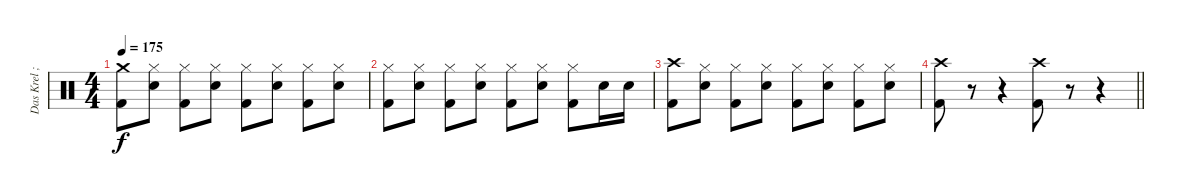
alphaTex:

\track ("Das Krel ;-)" "Das Krel ;") {instrument percussion}
\staff {score}
\articulation defaults
\ts (4 4)
\tempo 175
\clef neutral
\ks c
("Crash medium (hit)" "Kick (hit) 2").8{dy f} ("Hi-Hat (closed)" "Snare (hit) 2").8 ("Hi-Hat (closed)" "Kick (hit) 2").8 ("Hi-Hat (closed)" "Snare (hit) 2").8 ("Hi-Hat (closed)" "Kick (hit) 2").8 ("Hi-Hat (closed)" "Snare (hit) 2").8 ("Hi-Hat (closed)" "Kick (hit) 2").8 ("Hi-Hat (closed)" "Snare (hit) 2").8 |
("Hi-Hat (closed)" "Kick (hit) 2").8 ("Hi-Hat (closed)" "Snare (hit) 2").8 ("Hi-Hat (closed)" "Kick (hit) 2").8 ("Hi-Hat (closed)" "Snare (hit) 2").8 ("Hi-Hat (closed)" "Kick (hit) 2").8 ("Hi-Hat (closed)" "Snare (hit) 2").8 ("Hi-Hat (closed)" "Kick (hit) 2").8 "Snare (hit) 2".16 "Snare (hit) 2".16 |
("Crash high (hit)" "Kick (hit) 2").8 ("Hi-Hat (closed)" "Snare (hit) 2").8 ("Hi-Hat (closed)" "Kick (hit) 2").8 ("Hi-Hat (closed)" "Snare (hit) 2").8 ("Hi-Hat (closed)" "Kick (hit) 2").8 ("Hi-Hat (closed)" "Snare (hit) 2").8 ("Hi-Hat (closed)" "Kick (hit) 2").8 ("Hi-Hat (closed)" "Snare (hit) 2").8 |
\barLineRight lightlight
("Crash high (hit)" "Kick (hit) 2").8 r.8{volume 0} r.4 ("Crash high (hit)" "Kick (hit) 2").8{volume 13} r.8{volume 0} r.4
